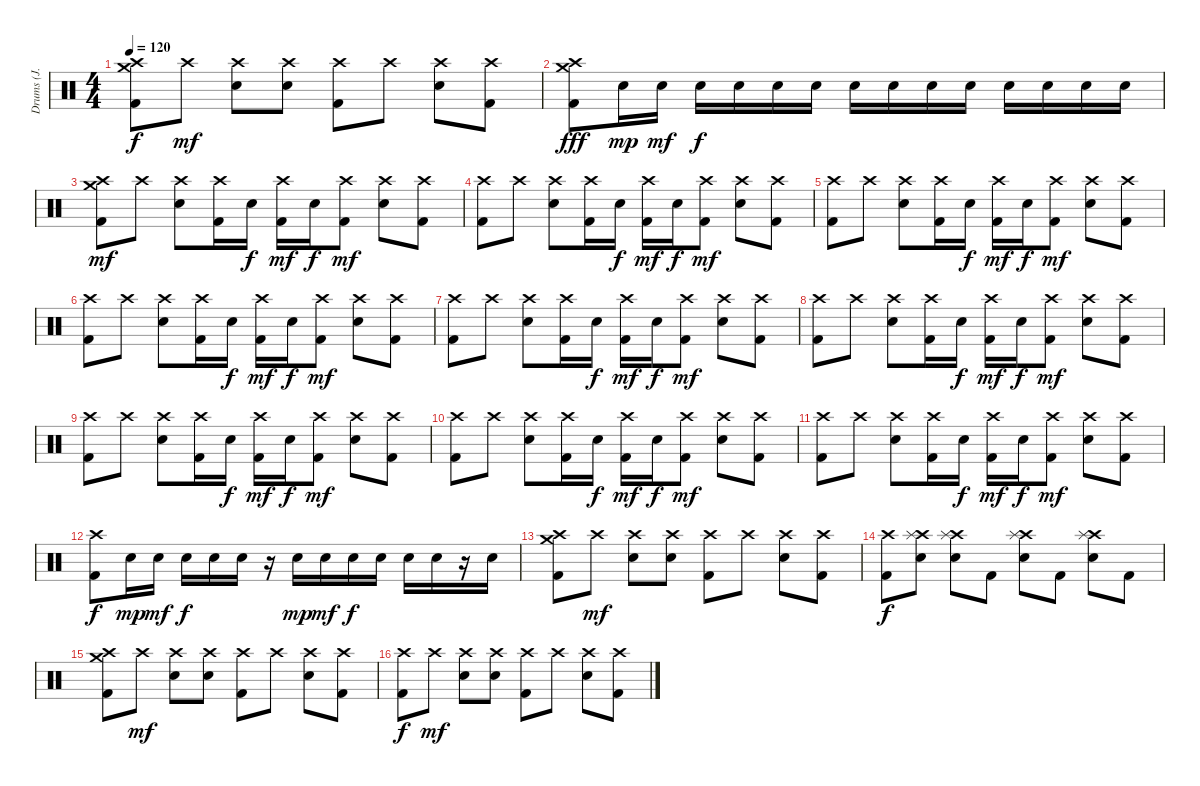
\track ("Drums (J. Cramer)" "Drums (J. ") {instrument percussion}
\staff {score}
\articulation defaults
\ts (4 4)
\tempo 120
\clef neutral
\ks c
("Crash high (hit)" "Crash medium (hit)" "Kick (hit) 2").8{dy f} "Crash high (hit)".8{dy mf} ("Crash high (hit)" "Electric Snare (hit)").8 ("Crash high (hit)" "Electric Snare (hit)").8 ("Crash high (hit)" "Kick (hit) 2").8 "Crash high (hit)".8 ("Crash high (hit)" "Electric Snare (hit)").8 ("Crash high (hit)" "Kick (hit) 2").8 |
("Crash high (hit)" "Crash medium (hit)" "Kick (hit) 2").8{dy fff} "Electric Snare (hit)".16{dy mp} "Electric Snare (hit)".16{dy mf} "Electric Snare (hit)".16{dy f} "Electric Snare (hit)".16 "Electric Snare (hit)".16 "Electric Snare (hit)".16 "Electric Snare (hit)".16 "Electric Snare (hit)".16 "Electric Snare (hit)".16 "Electric Snare (hit)".16 "Electric Snare (hit)".16 "Electric Snare (hit)".16 "Electric Snare (hit)".16 "Electric Snare (hit)".16 |
("Crash high (hit)" "Crash medium (hit)" "Kick (hit) 2").8{dy mf} "Crash high (hit)".8 ("Crash high (hit)" "Electric Snare (hit)").8 ("Crash high (hit)" "Kick (hit) 2").16 "Electric Snare (hit)".16{dy f} ("Crash high (hit)" "Kick (hit) 2").16{dy mf} "Electric Snare (hit)".16{dy f} ("Crash high (hit)" "Kick (hit) 2").8{dy mf} ("Crash high (hit)" "Electric Snare (hit)").8 ("Crash high (hit)" "Kick (hit) 2").8 |
("Crash high (hit)" "Kick (hit) 2").8 "Crash high (hit)".8 ("Crash high (hit)" "Electric Snare (hit)").8 ("Crash high (hit)" "Kick (hit) 2").16 "Electric Snare (hit)".16{dy f} ("Crash high (hit)" "Kick (hit) 2").16{dy mf} "Electric Snare (hit)".16{dy f} ("Crash high (hit)" "Kick (hit) 2").8{dy mf} ("Crash high (hit)" "Electric Snare (hit)").8 ("Crash high (hit)" "Kick (hit) 2").8 |
("Crash high (hit)" "Kick (hit) 2").8 "Crash high (hit)".8 ("Crash high (hit)" "Electric Snare (hit)").8 ("Crash high (hit)" "Kick (hit) 2").16 "Electric Snare (hit)".16{dy f} ("Crash high (hit)" "Kick (hit) 2").16{dy mf} "Electric Snare (hit)".16{dy f} ("Crash high (hit)" "Kick (hit) 2").8{dy mf} ("Crash high (hit)" "Electric Snare (hit)").8 ("Crash high (hit)" "Kick (hit) 2").8 |
("Crash high (hit)" "Kick (hit) 2").8 "Crash high (hit)".8 ("Crash high (hit)" "Electric Snare (hit)").8 ("Crash high (hit)" "Kick (hit) 2").16 "Electric Snare (hit)".16{dy f} ("Crash high (hit)" "Kick (hit) 2").16{dy mf} "Electric Snare (hit)".16{dy f} ("Crash high (hit)" "Kick (hit) 2").8{dy mf} ("Crash high (hit)" "Electric Snare (hit)").8 ("Crash high (hit)" "Kick (hit) 2").8 |
("Crash high (hit)" "Kick (hit) 2").8 "Crash high (hit)".8 ("Crash high (hit)" "Electric Snare (hit)").8 ("Crash high (hit)" "Kick (hit) 2").16 "Electric Snare (hit)".16{dy f} ("Crash high (hit)" "Kick (hit) 2").16{dy mf} "Electric Snare (hit)".16{dy f} ("Crash high (hit)" "Kick (hit) 2").8{dy mf} ("Crash high (hit)" "Electric Snare (hit)").8 ("Crash high (hit)" "Kick (hit) 2").8 |
("Crash high (hit)" "Kick (hit) 2").8 "Crash high (hit)".8 ("Crash high (hit)" "Electric Snare (hit)").8 ("Crash high (hit)" "Kick (hit) 2").16 "Electric Snare (hit)".16{dy f} ("Crash high (hit)" "Kick (hit) 2").16{dy mf} "Electric Snare (hit)".16{dy f} ("Crash high (hit)" "Kick (hit) 2").8{dy mf} ("Crash high (hit)" "Electric Snare (hit)").8 ("Crash high (hit)" "Kick (hit) 2").8 |
("Crash high (hit)" "Kick (hit) 2").8 "Crash high (hit)".8 ("Crash high (hit)" "Electric Snare (hit)").8 ("Crash high (hit)" "Kick (hit) 2").16 "Electric Snare (hit)".16{dy f} ("Crash high (hit)" "Kick (hit) 2").16{dy mf} "Electric Snare (hit)".16{dy f} ("Crash high (hit)" "Kick (hit) 2").8{dy mf} ("Crash high (hit)" "Electric Snare (hit)").8 ("Crash high (hit)" "Kick (hit) 2").8 |
("Crash high (hit)" "Kick (hit) 2").8 "Crash high (hit)".8 ("Crash high (hit)" "Electric Snare (hit)").8 ("Crash high (hit)" "Kick (hit) 2").16 "Electric Snare (hit)".16{dy f} ("Crash high (hit)" "Kick (hit) 2").16{dy mf} "Electric Snare (hit)".16{dy f} ("Crash high (hit)" "Kick (hit) 2").8{dy mf} ("Crash high (hit)" "Electric Snare (hit)").8 ("Crash high (hit)" "Kick (hit) 2").8 |
("Crash high (hit)" "Kick (hit) 2").8 "Crash high (hit)".8 ("Crash high (hit)" "Electric Snare (hit)").8 ("Crash high (hit)" "Kick (hit) 2").16 "Electric Snare (hit)".16{dy f} ("Crash high (hit)" "Kick (hit) 2").16{dy mf} "Electric Snare (hit)".16{dy f} ("Crash high (hit)" "Kick (hit) 2").8{dy mf} ("Crash high (hit)" "Electric Snare (hit)").8 ("Crash high (hit)" "Kick (hit) 2").8 |
("Crash high (hit)" "Kick (hit) 2").8{dy f} "Electric Snare (hit)".16{dy mp} "Electric Snare (hit)".16{dy mf} "Electric Snare (hit)".16{dy f} "Electric Snare (hit)".16 "Electric Snare (hit)".16 r.16 "Electric Snare (hit)".16{dy mp} "Electric Snare (hit)".16{dy mf} "Electric Snare (hit)".16{dy f} "Electric Snare (hit)".16 "Electric Snare (hit)".16 "Electric Snare (hit)".16 r.16 "Electric Snare (hit)".16 |
("Crash high (hit)" "Crash medium (hit)" "Kick (hit) 2").8 "Crash high (hit)".8{dy mf} ("Crash high (hit)" "Electric Snare (hit)").8 ("Crash high (hit)" "Electric Snare (hit)").8 ("Crash high (hit)" "Kick (hit) 2").8 "Crash high (hit)".8 ("Crash high (hit)" "Electric Snare (hit)").8 ("Crash high (hit)" "Kick (hit) 2").8 |
("Crash high (hit)" "Kick (hit) 2").8{dy f} ("Crash high (hit)" "Splash (hit)" "Electric Snare (hit)").8 ("Crash high (hit)" "Splash (hit)" "Electric Snare (hit)").8 "Kick (hit) 2".8 ("Crash high (hit)" "Splash (hit)" "Electric Snare (hit)").8 "Kick (hit) 2".8 ("Crash high (hit)" "Splash (hit)" "Electric Snare (hit)").8 "Kick (hit) 2".8 |
("Crash high (hit)" "Crash medium (hit)" "Kick (hit) 2").8 "Crash high (hit)".8{dy mf} ("Crash high (hit)" "Electric Snare (hit)").8 ("Crash high (hit)" "Electric Snare (hit)").8 ("Crash high (hit)" "Kick (hit) 2").8 "Crash high (hit)".8 ("Crash high (hit)" "Electric Snare (hit)").8 ("Crash high (hit)" "Kick (hit) 2").8 |
("Crash high (hit)" "Kick (hit) 2").8{dy f} "Crash high (hit)".8{dy mf} ("Crash high (hit)" "Electric Snare (hit)").8 ("Crash high (hit)" "Electric Snare (hit)").8 ("Crash high (hit)" "Kick (hit) 2").8 "Crash high (hit)".8 ("Crash high (hit)" "Electric Snare (hit)").8 ("Crash high (hit)" "Kick (hit) 2").8
